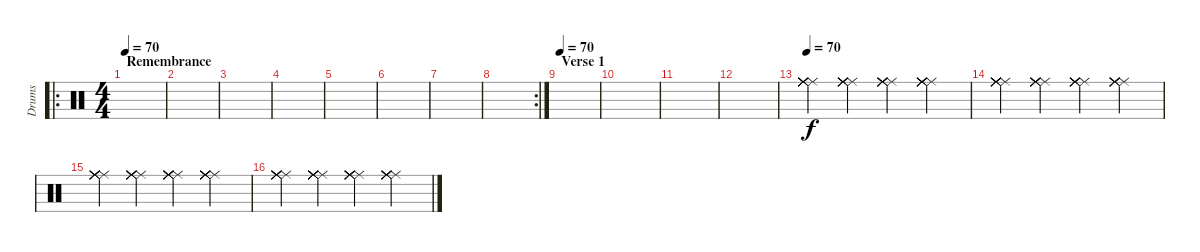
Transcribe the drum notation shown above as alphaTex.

\track ("Drums" "Drums") {instrument percussion}
\staff {score}
\articulation defaults
\ro
\ts (4 4)
\section ("" "Remembrance ")
\tempo 70
\clef neutral
\ks c
|
|
|
|
|
|
|
\rc 2
|
\section ("" "Verse 1")
\tempo 70
|
|
|
|
\tempo 70
("Ride (middle)" "Ride (middle)" "Ride (middle)" "Ride (middle)" "Ride (middle)" "Ride (middle)").4 ("Ride (middle)" "Ride (middle)" "Ride (middle)" "Ride (middle)" "Ride (middle)" "Ride (middle)").4 ("Ride (middle)" "Ride (middle)" "Ride (middle)" "Ride (middle)" "Ride (middle)" "Ride (middle)").4 ("Ride (middle)" "Ride (middle)" "Ride (middle)" "Ride (middle)" "Ride (middle)" "Ride (middle)").4 |
("Ride (middle)" "Ride (middle)" "Ride (middle)" "Ride (middle)" "Ride (middle)" "Ride (middle)").4 ("Ride (middle)" "Ride (middle)" "Ride (middle)" "Ride (middle)" "Ride (middle)" "Ride (middle)").4 ("Ride (middle)" "Ride (middle)" "Ride (middle)" "Ride (middle)" "Ride (middle)" "Ride (middle)").4 ("Ride (middle)" "Ride (middle)" "Ride (middle)" "Ride (middle)" "Ride (middle)" "Ride (middle)").4 |
("Ride (middle)" "Ride (middle)" "Ride (middle)" "Ride (middle)" "Ride (middle)" "Ride (middle)").4 ("Ride (middle)" "Ride (middle)" "Ride (middle)" "Ride (middle)" "Ride (middle)" "Ride (middle)").4 ("Ride (middle)" "Ride (middle)" "Ride (middle)" "Ride (middle)" "Ride (middle)" "Ride (middle)").4 ("Ride (middle)" "Ride (middle)" "Ride (middle)" "Ride (middle)" "Ride (middle)" "Ride (middle)").4 |
("Ride (middle)" "Ride (middle)" "Ride (middle)" "Ride (middle)" "Ride (middle)" "Ride (middle)").4 ("Ride (middle)" "Ride (middle)" "Ride (middle)" "Ride (middle)" "Ride (middle)" "Ride (middle)").4 ("Ride (middle)" "Ride (middle)" "Ride (middle)" "Ride (middle)" "Ride (middle)" "Ride (middle)").4 ("Ride (middle)" "Ride (middle)" "Ride (middle)" "Ride (middle)" "Ride (middle)" "Ride (middle)").4
